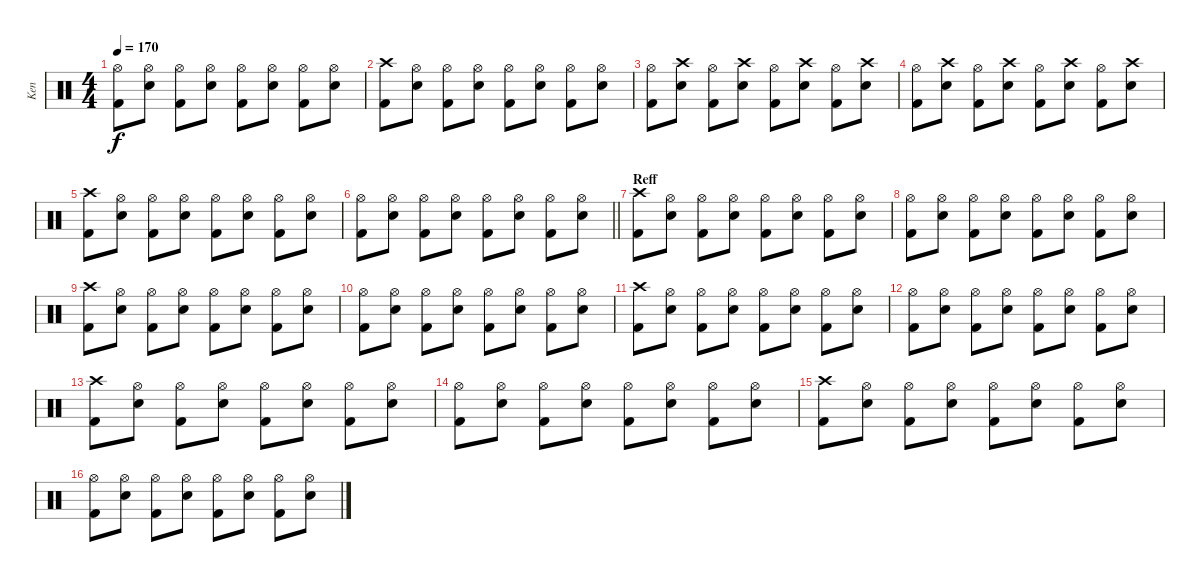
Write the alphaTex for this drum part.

\track ("Ken" "Ken") {instrument percussion}
\staff {score}
\articulation defaults
\ts (4 4)
\tempo 170
\clef neutral
\ks c
("Hi-Hat (open)" "Kick (hit) 2").8{dy f} ("Hi-Hat (open)" "Snare (hit) 2").8 ("Hi-Hat (open)" "Kick (hit) 2").8 ("Hi-Hat (open)" "Snare (hit) 2").8 ("Hi-Hat (open)" "Kick (hit) 2").8 ("Hi-Hat (open)" "Snare (hit) 2").8 ("Hi-Hat (open)" "Kick (hit) 2").8 ("Hi-Hat (open)" "Snare (hit) 2").8 |
("Crash high (hit)" "Kick (hit) 2").8 ("Hi-Hat (open)" "Snare (hit) 2").8 ("Hi-Hat (open)" "Kick (hit) 2").8 ("Hi-Hat (open)" "Snare (hit) 2").8 ("Hi-Hat (open)" "Kick (hit) 2").8 ("Hi-Hat (open)" "Snare (hit) 2").8 ("Hi-Hat (open)" "Kick (hit) 2").8 ("Hi-Hat (open)" "Snare (hit) 2").8 |
("Hi-Hat (open)" "Kick (hit) 2").8 ("Crash high (hit)" "Snare (hit) 2").8 ("Hi-Hat (open)" "Kick (hit) 2").8 ("Crash high (hit)" "Snare (hit) 2").8 ("Hi-Hat (open)" "Kick (hit) 2").8 ("Crash high (hit)" "Snare (hit) 2").8 ("Hi-Hat (open)" "Kick (hit) 2").8 ("Crash high (hit)" "Snare (hit) 2").8 |
("Hi-Hat (open)" "Kick (hit) 2").8 ("Crash high (hit)" "Snare (hit) 2").8 ("Hi-Hat (open)" "Kick (hit) 2").8 ("Crash high (hit)" "Snare (hit) 2").8 ("Hi-Hat (open)" "Kick (hit) 2").8 ("Crash high (hit)" "Snare (hit) 2").8 ("Hi-Hat (open)" "Kick (hit) 2").8 ("Crash high (hit)" "Snare (hit) 2").8 |
("Crash high (hit)" "Kick (hit) 2").8 ("Hi-Hat (open)" "Snare (hit) 2").8 ("Hi-Hat (open)" "Kick (hit) 2").8 ("Hi-Hat (open)" "Snare (hit) 2").8 ("Hi-Hat (open)" "Kick (hit) 2").8 ("Hi-Hat (open)" "Snare (hit) 2").8 ("Hi-Hat (open)" "Kick (hit) 2").8 ("Hi-Hat (open)" "Snare (hit) 2").8 |
\barLineRight lightlight
("Hi-Hat (open)" "Kick (hit) 2").8 ("Hi-Hat (open)" "Snare (hit) 2").8 ("Hi-Hat (open)" "Kick (hit) 2").8 ("Hi-Hat (open)" "Snare (hit) 2").8 ("Hi-Hat (open)" "Kick (hit) 2").8 ("Hi-Hat (open)" "Snare (hit) 2").8 ("Hi-Hat (open)" "Kick (hit) 2").8 ("Hi-Hat (open)" "Snare (hit) 2").8 |
\section ("" "Reff")
("Crash high (hit)" "Kick (hit) 2").8 ("Hi-Hat (open)" "Snare (hit) 2").8 ("Hi-Hat (open)" "Kick (hit) 2").8 ("Hi-Hat (open)" "Snare (hit) 2").8 ("Hi-Hat (open)" "Kick (hit) 2").8 ("Hi-Hat (open)" "Snare (hit) 2").8 ("Hi-Hat (open)" "Kick (hit) 2").8 ("Hi-Hat (open)" "Snare (hit) 2").8 |
("Hi-Hat (open)" "Kick (hit) 2").8 ("Hi-Hat (open)" "Snare (hit) 2").8 ("Hi-Hat (open)" "Kick (hit) 2").8 ("Hi-Hat (open)" "Snare (hit) 2").8 ("Hi-Hat (open)" "Kick (hit) 2").8 ("Hi-Hat (open)" "Snare (hit) 2").8 ("Hi-Hat (open)" "Kick (hit) 2").8 ("Hi-Hat (open)" "Snare (hit) 2").8 |
("Crash high (hit)" "Kick (hit) 2").8 ("Hi-Hat (open)" "Snare (hit) 2").8 ("Hi-Hat (open)" "Kick (hit) 2").8 ("Hi-Hat (open)" "Snare (hit) 2").8 ("Hi-Hat (open)" "Kick (hit) 2").8 ("Hi-Hat (open)" "Snare (hit) 2").8 ("Hi-Hat (open)" "Kick (hit) 2").8 ("Hi-Hat (open)" "Snare (hit) 2").8 |
("Hi-Hat (open)" "Kick (hit) 2").8 ("Hi-Hat (open)" "Snare (hit) 2").8 ("Hi-Hat (open)" "Kick (hit) 2").8 ("Hi-Hat (open)" "Snare (hit) 2").8 ("Hi-Hat (open)" "Kick (hit) 2").8 ("Hi-Hat (open)" "Snare (hit) 2").8 ("Hi-Hat (open)" "Kick (hit) 2").8 ("Hi-Hat (open)" "Snare (hit) 2").8 |
("Crash high (hit)" "Kick (hit) 2").8 ("Hi-Hat (open)" "Snare (hit) 2").8 ("Hi-Hat (open)" "Kick (hit) 2").8 ("Hi-Hat (open)" "Snare (hit) 2").8 ("Hi-Hat (open)" "Kick (hit) 2").8 ("Hi-Hat (open)" "Snare (hit) 2").8 ("Hi-Hat (open)" "Kick (hit) 2").8 ("Hi-Hat (open)" "Snare (hit) 2").8 |
("Hi-Hat (open)" "Kick (hit) 2").8 ("Hi-Hat (open)" "Snare (hit) 2").8 ("Hi-Hat (open)" "Kick (hit) 2").8 ("Hi-Hat (open)" "Snare (hit) 2").8 ("Hi-Hat (open)" "Kick (hit) 2").8 ("Hi-Hat (open)" "Snare (hit) 2").8 ("Hi-Hat (open)" "Kick (hit) 2").8 ("Hi-Hat (open)" "Snare (hit) 2").8 |
("Crash high (hit)" "Kick (hit) 2").8 ("Hi-Hat (open)" "Snare (hit) 2").8 ("Hi-Hat (open)" "Kick (hit) 2").8 ("Hi-Hat (open)" "Snare (hit) 2").8 ("Hi-Hat (open)" "Kick (hit) 2").8 ("Hi-Hat (open)" "Snare (hit) 2").8 ("Hi-Hat (open)" "Kick (hit) 2").8 ("Hi-Hat (open)" "Snare (hit) 2").8 |
("Hi-Hat (open)" "Kick (hit) 2").8 ("Hi-Hat (open)" "Snare (hit) 2").8 ("Hi-Hat (open)" "Kick (hit) 2").8 ("Hi-Hat (open)" "Snare (hit) 2").8 ("Hi-Hat (open)" "Kick (hit) 2").8 ("Hi-Hat (open)" "Snare (hit) 2").8 ("Hi-Hat (open)" "Kick (hit) 2").8 ("Hi-Hat (open)" "Snare (hit) 2").8 |
("Crash high (hit)" "Kick (hit) 2").8 ("Hi-Hat (open)" "Snare (hit) 2").8 ("Hi-Hat (open)" "Kick (hit) 2").8 ("Hi-Hat (open)" "Snare (hit) 2").8 ("Hi-Hat (open)" "Kick (hit) 2").8 ("Hi-Hat (open)" "Snare (hit) 2").8 ("Hi-Hat (open)" "Kick (hit) 2").8 ("Hi-Hat (open)" "Snare (hit) 2").8 |
("Hi-Hat (open)" "Kick (hit) 2").8 ("Hi-Hat (open)" "Snare (hit) 2").8 ("Hi-Hat (open)" "Kick (hit) 2").8 ("Hi-Hat (open)" "Snare (hit) 2").8 ("Hi-Hat (open)" "Kick (hit) 2").8 ("Hi-Hat (open)" "Snare (hit) 2").8 ("Hi-Hat (open)" "Kick (hit) 2").8 ("Hi-Hat (open)" "Snare (hit) 2").8
